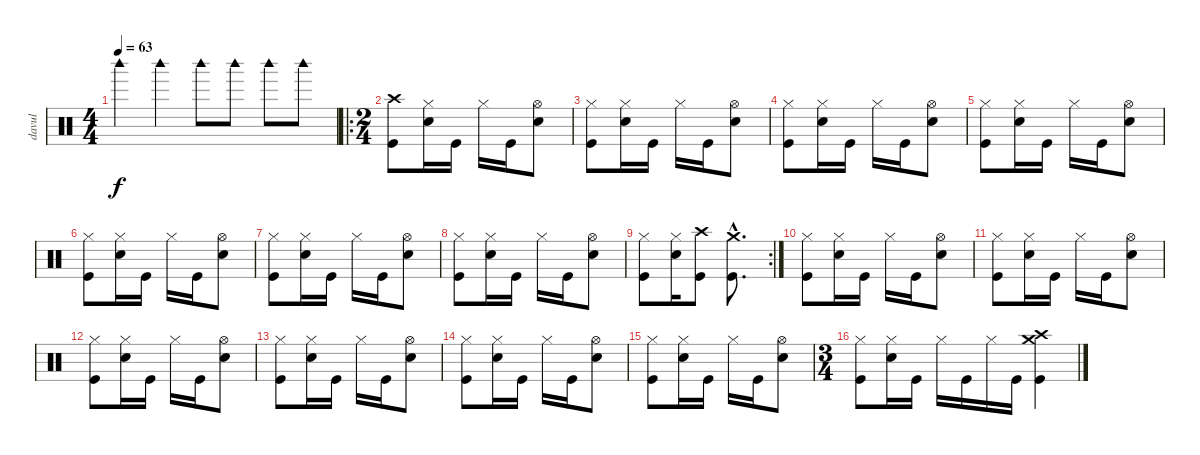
\track ("davul" "davul") {instrument percussion}
\staff {score}
\articulation defaults
\ts (4 4)
\tempo 63
\clef neutral
\ks c "Woodblock high (hit)".4{dy f} "Woodblock high (hit)".4 "Woodblock high (hit)".8 "Woodblock high (hit)".8 "Woodblock high (hit)".8 "Woodblock high (hit)".8
|
\ro
\ts (2 4)
("Crash high (hit)" "Kick (hit)").8 ("Hi-Hat (closed)" "Snare (hit) 2").16 "Kick (hit)".16 "Hi-Hat (closed)".16 "Kick (hit)".16 ("Hi-Hat (open)" "Snare (hit) 2").8 |
("Hi-Hat (closed)" "Kick (hit)").8 ("Hi-Hat (closed)" "Snare (hit) 2").16 "Kick (hit)".16 "Hi-Hat (closed)".16 "Kick (hit)".16 ("Hi-Hat (open)" "Snare (hit) 2").8 |
("Hi-Hat (closed)" "Kick (hit)").8 ("Hi-Hat (closed)" "Snare (hit) 2").16 "Kick (hit)".16 "Hi-Hat (closed)".16 "Kick (hit)".16 ("Hi-Hat (open)" "Snare (hit) 2").8 |
("Hi-Hat (closed)" "Kick (hit)").8 ("Hi-Hat (closed)" "Snare (hit) 2").16 "Kick (hit)".16 "Hi-Hat (closed)".16 "Kick (hit)".16 ("Hi-Hat (open)" "Snare (hit) 2").8 |
("Hi-Hat (closed)" "Kick (hit)").8 ("Hi-Hat (closed)" "Snare (hit) 2").16 "Kick (hit)".16 "Hi-Hat (closed)".16 "Kick (hit)".16 ("Hi-Hat (open)" "Snare (hit) 2").8 |
("Hi-Hat (closed)" "Kick (hit)").8 ("Hi-Hat (closed)" "Snare (hit) 2").16 "Kick (hit)".16 "Hi-Hat (closed)".16 "Kick (hit)".16 ("Hi-Hat (open)" "Snare (hit) 2").8 |
("Hi-Hat (closed)" "Kick (hit)").8 ("Hi-Hat (closed)" "Snare (hit) 2").16 "Kick (hit)".16 "Hi-Hat (closed)".16 "Kick (hit)".16 ("Hi-Hat (open)" "Snare (hit) 2").8 |
\rc 2
("Hi-Hat (closed)" "Kick (hit)").8 ("Hi-Hat (closed)" "Snare (hit) 2").16 ("Crash high (hit)" "Kick (hit)").8 ("Crash medium (hit)"{hac} "Kick (hit)"{hac}).8{d} |
("Hi-Hat (closed)" "Kick (hit)").8 ("Hi-Hat (closed)" "Snare (hit) 2").16 "Kick (hit)".16 "Hi-Hat (closed)".16 "Kick (hit)".16 ("Hi-Hat (open)" "Snare (hit) 2").8 |
("Hi-Hat (closed)" "Kick (hit)").8 ("Hi-Hat (closed)" "Snare (hit) 2").16 "Kick (hit)".16 "Hi-Hat (closed)".16 "Kick (hit)".16 ("Hi-Hat (open)" "Snare (hit) 2").8 |
("Hi-Hat (closed)" "Kick (hit)").8 ("Hi-Hat (closed)" "Snare (hit) 2").16 "Kick (hit)".16 "Hi-Hat (closed)".16 "Kick (hit)".16 ("Hi-Hat (open)" "Snare (hit) 2").8 |
("Hi-Hat (closed)" "Kick (hit)").8 ("Hi-Hat (closed)" "Snare (hit) 2").16 "Kick (hit)".16 "Hi-Hat (closed)".16 "Kick (hit)".16 ("Hi-Hat (open)" "Snare (hit) 2").8 |
("Hi-Hat (closed)" "Kick (hit)").8 ("Hi-Hat (closed)" "Snare (hit) 2").16 "Kick (hit)".16 "Hi-Hat (closed)".16 "Kick (hit)".16 ("Hi-Hat (open)" "Snare (hit) 2").8 |
("Hi-Hat (closed)" "Kick (hit)").8 ("Hi-Hat (closed)" "Snare (hit) 2").16 "Kick (hit)".16 "Hi-Hat (closed)".16 "Kick (hit)".16 ("Hi-Hat (open)" "Snare (hit) 2").8 |
\ts (3 4)
("Hi-Hat (closed)" "Kick (hit)").8 ("Hi-Hat (closed)" "Snare (hit) 2").16 "Kick (hit)".16 "Hi-Hat (closed)".16 "Kick (hit)".16 "Hi-Hat (closed)".16 "Kick (hit)".16 ("Crash medium (hit)" "Crash high (hit)" "Kick (hit)").4
